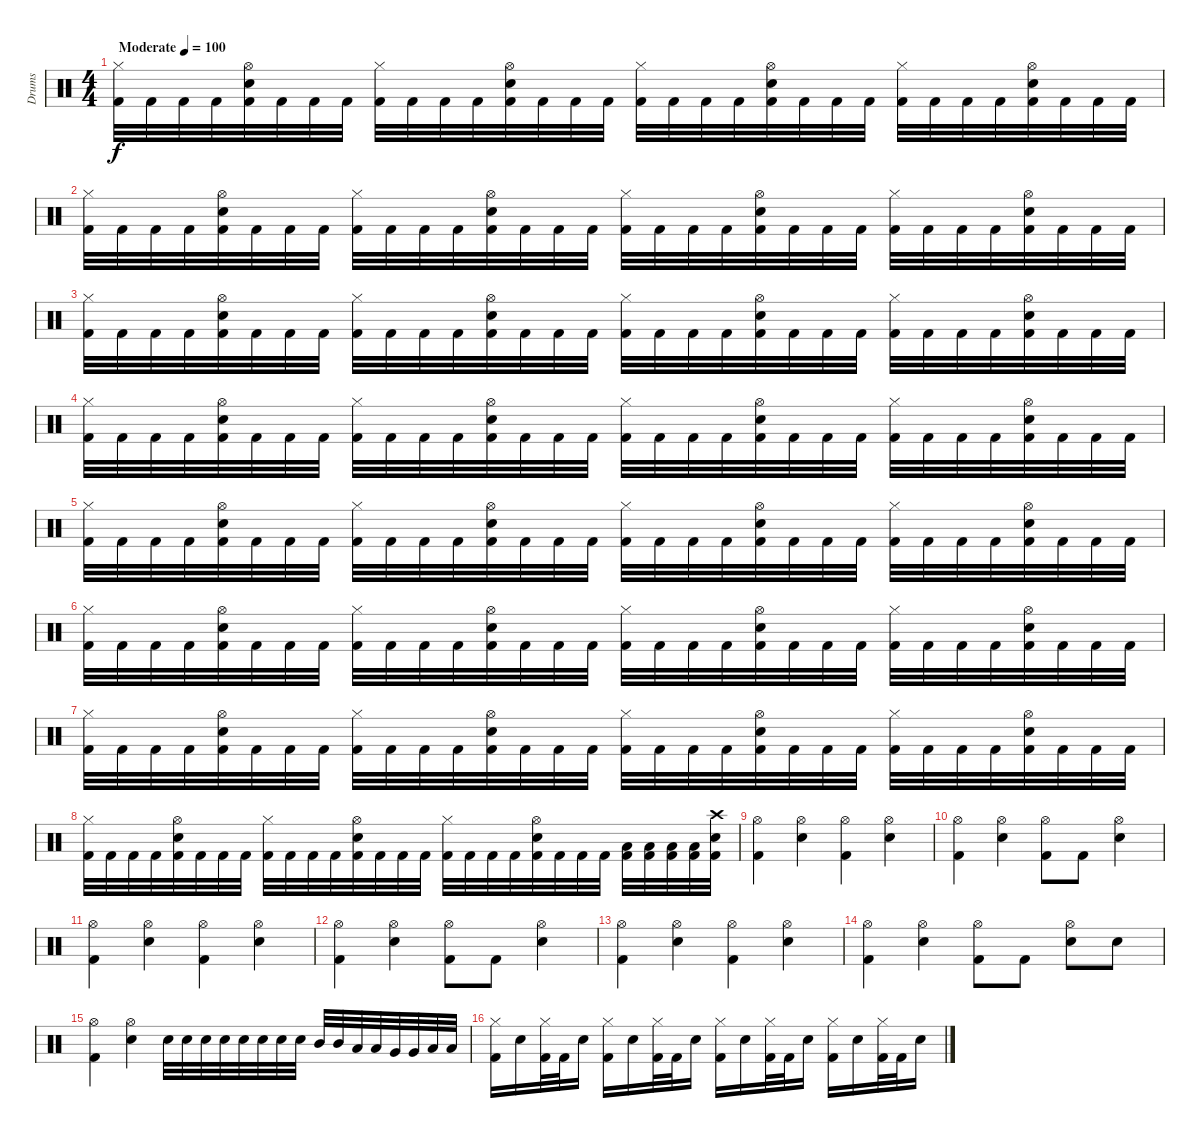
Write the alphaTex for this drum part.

\track ("Drums" "Drums") {instrument percussion}
\staff {score}
\articulation defaults
\ts (4 4)
\tempo (100 "Moderate")
\clef neutral
\ks c
("Hi-Hat (closed)" "Kick (hit) 2").32{dy f} "Kick (hit) 2".32 "Kick (hit) 2".32 "Kick (hit) 2".32 ("Hi-Hat (open)" "Snare (hit) 2" "Kick (hit) 2").32 "Kick (hit) 2".32 "Kick (hit) 2".32 "Kick (hit) 2".32 ("Hi-Hat (closed)" "Kick (hit) 2").32 "Kick (hit) 2".32 "Kick (hit) 2".32 "Kick (hit) 2".32 ("Hi-Hat (open)" "Snare (hit) 2" "Kick (hit) 2").32 "Kick (hit) 2".32 "Kick (hit) 2".32 "Kick (hit) 2".32 ("Hi-Hat (closed)" "Kick (hit) 2").32 "Kick (hit) 2".32 "Kick (hit) 2".32 "Kick (hit) 2".32 ("Hi-Hat (open)" "Snare (hit) 2" "Kick (hit) 2").32 "Kick (hit) 2".32 "Kick (hit) 2".32 "Kick (hit) 2".32 ("Hi-Hat (closed)" "Kick (hit) 2").32 "Kick (hit) 2".32 "Kick (hit) 2".32 "Kick (hit) 2".32 ("Hi-Hat (open)" "Snare (hit) 2" "Kick (hit) 2").32 "Kick (hit) 2".32 "Kick (hit) 2".32 "Kick (hit) 2".32 |
("Hi-Hat (closed)" "Kick (hit) 2").32 "Kick (hit) 2".32 "Kick (hit) 2".32 "Kick (hit) 2".32 ("Hi-Hat (open)" "Snare (hit) 2" "Kick (hit) 2").32 "Kick (hit) 2".32 "Kick (hit) 2".32 "Kick (hit) 2".32 ("Hi-Hat (closed)" "Kick (hit) 2").32 "Kick (hit) 2".32 "Kick (hit) 2".32 "Kick (hit) 2".32 ("Hi-Hat (open)" "Snare (hit) 2" "Kick (hit) 2").32 "Kick (hit) 2".32 "Kick (hit) 2".32 "Kick (hit) 2".32 ("Hi-Hat (closed)" "Kick (hit) 2").32 "Kick (hit) 2".32 "Kick (hit) 2".32 "Kick (hit) 2".32 ("Hi-Hat (open)" "Snare (hit) 2" "Kick (hit) 2").32 "Kick (hit) 2".32 "Kick (hit) 2".32 "Kick (hit) 2".32 ("Hi-Hat (closed)" "Kick (hit) 2").32 "Kick (hit) 2".32 "Kick (hit) 2".32 "Kick (hit) 2".32 ("Hi-Hat (open)" "Snare (hit) 2" "Kick (hit) 2").32 "Kick (hit) 2".32 "Kick (hit) 2".32 "Kick (hit) 2".32 |
("Hi-Hat (closed)" "Kick (hit) 2").32 "Kick (hit) 2".32 "Kick (hit) 2".32 "Kick (hit) 2".32 ("Hi-Hat (open)" "Snare (hit) 2" "Kick (hit) 2").32 "Kick (hit) 2".32 "Kick (hit) 2".32 "Kick (hit) 2".32 ("Hi-Hat (closed)" "Kick (hit) 2").32 "Kick (hit) 2".32 "Kick (hit) 2".32 "Kick (hit) 2".32 ("Hi-Hat (open)" "Snare (hit) 2" "Kick (hit) 2").32 "Kick (hit) 2".32 "Kick (hit) 2".32 "Kick (hit) 2".32 ("Hi-Hat (closed)" "Kick (hit) 2").32 "Kick (hit) 2".32 "Kick (hit) 2".32 "Kick (hit) 2".32 ("Hi-Hat (open)" "Snare (hit) 2" "Kick (hit) 2").32 "Kick (hit) 2".32 "Kick (hit) 2".32 "Kick (hit) 2".32 ("Hi-Hat (closed)" "Kick (hit) 2").32 "Kick (hit) 2".32 "Kick (hit) 2".32 "Kick (hit) 2".32 ("Hi-Hat (open)" "Snare (hit) 2" "Kick (hit) 2").32 "Kick (hit) 2".32 "Kick (hit) 2".32 "Kick (hit) 2".32 |
("Hi-Hat (closed)" "Kick (hit) 2").32 "Kick (hit) 2".32 "Kick (hit) 2".32 "Kick (hit) 2".32 ("Hi-Hat (open)" "Snare (hit) 2" "Kick (hit) 2").32 "Kick (hit) 2".32 "Kick (hit) 2".32 "Kick (hit) 2".32 ("Hi-Hat (closed)" "Kick (hit) 2").32 "Kick (hit) 2".32 "Kick (hit) 2".32 "Kick (hit) 2".32 ("Hi-Hat (open)" "Snare (hit) 2" "Kick (hit) 2").32 "Kick (hit) 2".32 "Kick (hit) 2".32 "Kick (hit) 2".32 ("Hi-Hat (closed)" "Kick (hit) 2").32 "Kick (hit) 2".32 "Kick (hit) 2".32 "Kick (hit) 2".32 ("Hi-Hat (open)" "Snare (hit) 2" "Kick (hit) 2").32 "Kick (hit) 2".32 "Kick (hit) 2".32 "Kick (hit) 2".32 ("Hi-Hat (closed)" "Kick (hit) 2").32 "Kick (hit) 2".32 "Kick (hit) 2".32 "Kick (hit) 2".32 ("Hi-Hat (open)" "Snare (hit) 2" "Kick (hit) 2").32 "Kick (hit) 2".32 "Kick (hit) 2".32 "Kick (hit) 2".32 |
("Hi-Hat (closed)" "Kick (hit) 2").32 "Kick (hit) 2".32 "Kick (hit) 2".32 "Kick (hit) 2".32 ("Hi-Hat (open)" "Snare (hit) 2" "Kick (hit) 2").32 "Kick (hit) 2".32 "Kick (hit) 2".32 "Kick (hit) 2".32 ("Hi-Hat (closed)" "Kick (hit) 2").32 "Kick (hit) 2".32 "Kick (hit) 2".32 "Kick (hit) 2".32 ("Hi-Hat (open)" "Snare (hit) 2" "Kick (hit) 2").32 "Kick (hit) 2".32 "Kick (hit) 2".32 "Kick (hit) 2".32 ("Hi-Hat (closed)" "Kick (hit) 2").32 "Kick (hit) 2".32 "Kick (hit) 2".32 "Kick (hit) 2".32 ("Hi-Hat (open)" "Snare (hit) 2" "Kick (hit) 2").32 "Kick (hit) 2".32 "Kick (hit) 2".32 "Kick (hit) 2".32 ("Hi-Hat (closed)" "Kick (hit) 2").32 "Kick (hit) 2".32 "Kick (hit) 2".32 "Kick (hit) 2".32 ("Hi-Hat (open)" "Snare (hit) 2" "Kick (hit) 2").32 "Kick (hit) 2".32 "Kick (hit) 2".32 "Kick (hit) 2".32 |
("Hi-Hat (closed)" "Kick (hit) 2").32 "Kick (hit) 2".32 "Kick (hit) 2".32 "Kick (hit) 2".32 ("Hi-Hat (open)" "Snare (hit) 2" "Kick (hit) 2").32 "Kick (hit) 2".32 "Kick (hit) 2".32 "Kick (hit) 2".32 ("Hi-Hat (closed)" "Kick (hit) 2").32 "Kick (hit) 2".32 "Kick (hit) 2".32 "Kick (hit) 2".32 ("Hi-Hat (open)" "Snare (hit) 2" "Kick (hit) 2").32 "Kick (hit) 2".32 "Kick (hit) 2".32 "Kick (hit) 2".32 ("Hi-Hat (closed)" "Kick (hit) 2").32 "Kick (hit) 2".32 "Kick (hit) 2".32 "Kick (hit) 2".32 ("Hi-Hat (open)" "Snare (hit) 2" "Kick (hit) 2").32 "Kick (hit) 2".32 "Kick (hit) 2".32 "Kick (hit) 2".32 ("Hi-Hat (closed)" "Kick (hit) 2").32 "Kick (hit) 2".32 "Kick (hit) 2".32 "Kick (hit) 2".32 ("Hi-Hat (open)" "Snare (hit) 2" "Kick (hit) 2").32 "Kick (hit) 2".32 "Kick (hit) 2".32 "Kick (hit) 2".32 |
("Hi-Hat (closed)" "Kick (hit) 2").32 "Kick (hit) 2".32 "Kick (hit) 2".32 "Kick (hit) 2".32 ("Hi-Hat (open)" "Snare (hit) 2" "Kick (hit) 2").32 "Kick (hit) 2".32 "Kick (hit) 2".32 "Kick (hit) 2".32 ("Hi-Hat (closed)" "Kick (hit) 2").32 "Kick (hit) 2".32 "Kick (hit) 2".32 "Kick (hit) 2".32 ("Hi-Hat (open)" "Snare (hit) 2" "Kick (hit) 2").32 "Kick (hit) 2".32 "Kick (hit) 2".32 "Kick (hit) 2".32 ("Hi-Hat (closed)" "Kick (hit) 2").32 "Kick (hit) 2".32 "Kick (hit) 2".32 "Kick (hit) 2".32 ("Hi-Hat (open)" "Snare (hit) 2" "Kick (hit) 2").32 "Kick (hit) 2".32 "Kick (hit) 2".32 "Kick (hit) 2".32 ("Hi-Hat (closed)" "Kick (hit) 2").32 "Kick (hit) 2".32 "Kick (hit) 2".32 "Kick (hit) 2".32 ("Hi-Hat (open)" "Snare (hit) 2" "Kick (hit) 2").32 "Kick (hit) 2".32 "Kick (hit) 2".32 "Kick (hit) 2".32 |
("Hi-Hat (closed)" "Kick (hit) 2").32 "Kick (hit) 2".32 "Kick (hit) 2".32 "Kick (hit) 2".32 ("Hi-Hat (open)" "Snare (hit) 2" "Kick (hit) 2").32 "Kick (hit) 2".32 "Kick (hit) 2".32 "Kick (hit) 2".32 ("Hi-Hat (closed)" "Kick (hit) 2").32 "Kick (hit) 2".32 "Kick (hit) 2".32 "Kick (hit) 2".32 ("Hi-Hat (open)" "Snare (hit) 2" "Kick (hit) 2").32 "Kick (hit) 2".32 "Kick (hit) 2".32 "Kick (hit) 2".32 ("Hi-Hat (closed)" "Kick (hit) 2").32 "Kick (hit) 2".32 "Kick (hit) 2".32 "Kick (hit) 2".32 ("Hi-Hat (open)" "Snare (hit) 2" "Kick (hit) 2").32 "Kick (hit) 2".32 "Kick (hit) 2".32 "Kick (hit) 2".32 ("Low Floor Tom (hit)" "Kick (hit) 2").32 ("Low Floor Tom (hit)" "Kick (hit) 2").32 ("Low Floor Tom (hit)" "Kick (hit) 2").32 ("Low Floor Tom (hit)" "Kick (hit) 2").32 ("Crash high (hit)" "Snare (hit) 2" "Kick (hit) 2").32 |
("Hi-Hat (open)" "Kick (hit) 2").4 ("Hi-Hat (open)" "Snare (hit) 2").4 ("Hi-Hat (open)" "Kick (hit) 2").4 ("Hi-Hat (open)" "Snare (hit) 2").4 |
("Hi-Hat (open)" "Kick (hit) 2").4 ("Hi-Hat (open)" "Snare (hit) 2").4 ("Hi-Hat (open)" "Kick (hit) 2").8 "Kick (hit) 2".8 ("Hi-Hat (open)" "Snare (hit) 2").4 |
("Hi-Hat (open)" "Kick (hit) 2").4 ("Hi-Hat (open)" "Snare (hit) 2").4 ("Hi-Hat (open)" "Kick (hit) 2").4 ("Hi-Hat (open)" "Snare (hit) 2").4 |
("Hi-Hat (open)" "Kick (hit) 2").4 ("Hi-Hat (open)" "Snare (hit) 2").4 ("Hi-Hat (open)" "Kick (hit) 2").8 "Kick (hit) 2".8 ("Hi-Hat (open)" "Snare (hit) 2").4 |
("Hi-Hat (open)" "Kick (hit) 2").4 ("Hi-Hat (open)" "Snare (hit) 2").4 ("Hi-Hat (open)" "Kick (hit) 2").4 ("Hi-Hat (open)" "Snare (hit) 2").4 |
("Hi-Hat (open)" "Kick (hit) 2").4 ("Hi-Hat (open)" "Snare (hit) 2").4 ("Hi-Hat (open)" "Kick (hit) 2").8 "Kick (hit) 2".8 ("Hi-Hat (open)" "Snare (hit) 2").8 "Snare (hit) 2".8 |
("Hi-Hat (open)" "Kick (hit) 2").4 ("Hi-Hat (open)" "Snare (hit) 2").4 "Snare (hit) 2".32 "Snare (hit) 2".32 "Snare (hit) 2".32 "Snare (hit) 2".32 "Snare (hit) 2".32 "Snare (hit) 2".32 "Snare (hit) 2".32 "Snare (hit) 2".32 "Mid Tom (hit)".32 "Mid Tom (hit)".32 "Low Tom (hit)".32 "Low Tom (hit)".32 "Very Low Tom (hit)".32 "Very Low Tom (hit)".32 "Low Floor Tom (hit)".32 "Low Floor Tom (hit)".32 |
("Hi-Hat (closed)" "Kick (hit) 2").16 "Snare (hit) 2".16 ("Hi-Hat (closed)" "Kick (hit) 2").32 "Kick (hit) 2".32 "Snare (hit) 2".16 ("Hi-Hat (closed)" "Kick (hit) 2").16 "Snare (hit) 2".16 ("Hi-Hat (closed)" "Kick (hit) 2").32 "Kick (hit) 2".32 "Snare (hit) 2".16 ("Hi-Hat (closed)" "Kick (hit) 2").16 "Snare (hit) 2".16 ("Hi-Hat (closed)" "Kick (hit) 2").32 "Kick (hit) 2".32 "Snare (hit) 2".16 ("Hi-Hat (closed)" "Kick (hit) 2").16 "Snare (hit) 2".16 ("Hi-Hat (closed)" "Kick (hit) 2").32 "Kick (hit) 2".32 "Snare (hit) 2".16
